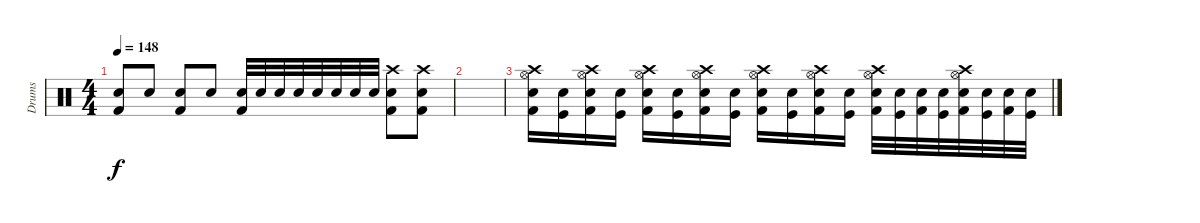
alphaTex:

\track ("Drums" "Drums") {instrument percussion}
\staff {score}
\articulation defaults
\ts (4 4)
\tempo 148
\clef neutral
\ks c
("Snare (hit) 2" "Kick (hit) 2").8{dy f} "Snare (hit) 2".8 ("Snare (hit) 2" "Kick (hit) 2").8 "Snare (hit) 2".8 ("Snare (hit) 2" "Kick (hit) 2").32 "Snare (hit) 2".32 "Snare (hit) 2".32 "Snare (hit) 2".32 "Snare (hit) 2".32 "Snare (hit) 2".32 "Snare (hit) 2".32 "Snare (hit) 2".32 ("Crash high (hit)" "Snare (hit) 2" "Kick (hit) 2").8 ("Crash high (hit)" "Snare (hit) 2" "Kick (hit) 2").8 |
|
("Hi-Hat (open)" "Crash high (hit)" "Snare (hit) 2" "Kick (hit) 2").16 ("Snare (hit) 2" "Kick (hit)").16 ("Hi-Hat (open)" "Crash high (hit)" "Snare (hit) 2" "Kick (hit) 2").16 ("Snare (hit) 2" "Kick (hit)").16 ("Hi-Hat (open)" "Crash high (hit)" "Snare (hit) 2" "Kick (hit) 2").16 ("Snare (hit) 2" "Kick (hit)").16 ("Hi-Hat (open)" "Crash high (hit)" "Snare (hit) 2" "Kick (hit) 2").16 ("Snare (hit) 2" "Kick (hit)").16 ("Hi-Hat (open)" "Crash high (hit)" "Snare (hit) 2" "Kick (hit) 2").16 ("Snare (hit) 2" "Kick (hit)").16 ("Hi-Hat (open)" "Crash high (hit)" "Snare (hit) 2" "Kick (hit) 2").16 ("Snare (hit) 2" "Kick (hit)").16 ("Hi-Hat (open)" "Crash high (hit)" "Snare (hit) 2" "Kick (hit) 2").32 ("Snare (hit) 2" "Kick (hit)").32 ("Snare (hit) 2" "Kick (hit) 2").32 ("Snare (hit) 2" "Kick (hit)").32 ("Hi-Hat (open)" "Crash high (hit)" "Snare (hit) 2" "Kick (hit) 2").32 ("Snare (hit) 2" "Kick (hit)").32 ("Snare (hit) 2" "Kick (hit) 2").32 ("Snare (hit) 2" "Kick (hit)").32
